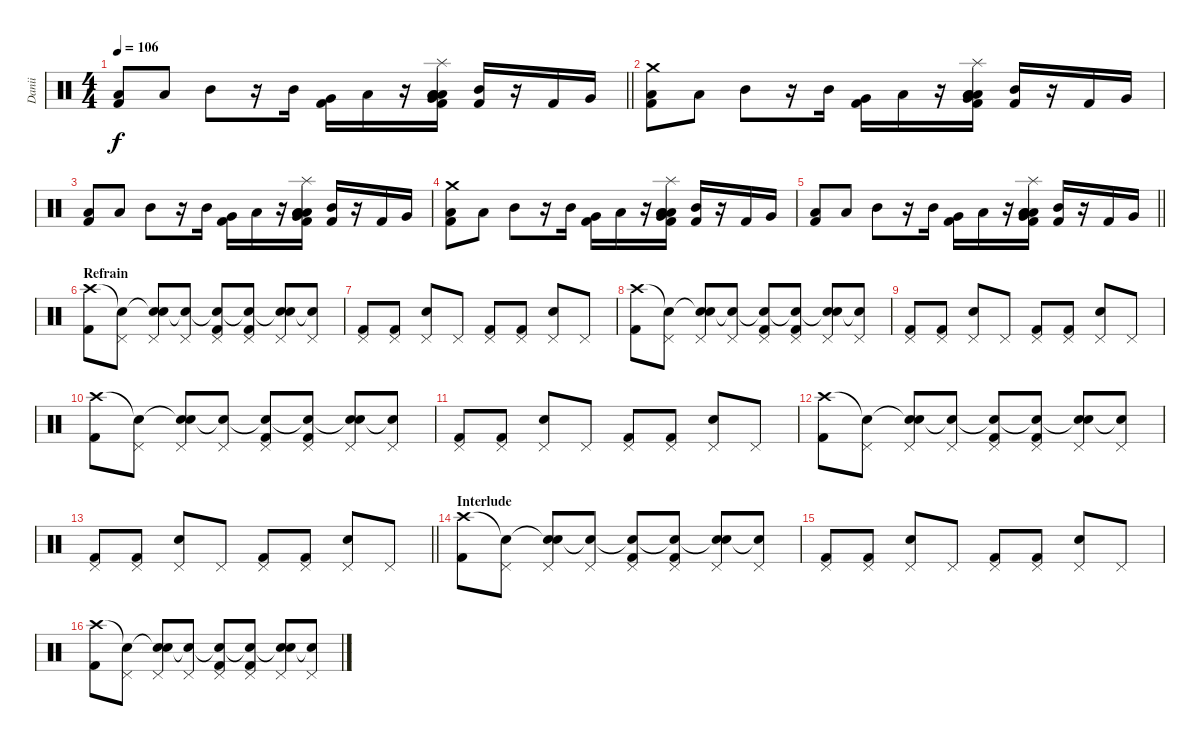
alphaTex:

\track ("Danii" "Danii") {instrument percussion}
\staff {score}
\articulation defaults
\ts (4 4)
\tempo 106
\clef neutral
\barLineRight lightlight
\ks c
("Low Floor Tom (hit)" "Kick (hit) 2").8{dy f} "Low Floor Tom (hit)".8 "Mid Tom (hit)".8 r.16 "Mid Tom (hit)".16 ("Very Low Tom (hit)" "Kick (hit) 2").16 "Low Tom (hit)".16 r.16 ("Low Floor Tom (hit)" "Low Floor Tom (hit)" "Very Low Tom (hit)" "Low Floor Tom (hit)" "Kick (hit) 2" "Splash (hit)").16 ("Mid Tom (hit)" "Kick (hit) 2").16 r.16 "Kick (hit) 2".16 "Very Low Tom (hit)".16 |
("Low Floor Tom (hit)" "Kick (hit) 2" "Crash medium (hit)").8 "Low Floor Tom (hit)".8 "Mid Tom (hit)".8 r.16 "Mid Tom (hit)".16 ("Very Low Tom (hit)" "Kick (hit) 2").16 "Low Tom (hit)".16 r.16 ("Low Floor Tom (hit)" "Low Floor Tom (hit)" "Very Low Tom (hit)" "Low Floor Tom (hit)" "Kick (hit) 2" "Splash (hit)").16 ("Mid Tom (hit)" "Kick (hit) 2").16 r.16 "Kick (hit) 2".16 "Very Low Tom (hit)".16 |
("Low Floor Tom (hit)" "Kick (hit) 2").8 "Low Floor Tom (hit)".8 "Mid Tom (hit)".8 r.16 "Mid Tom (hit)".16 ("Very Low Tom (hit)" "Kick (hit) 2").16 "Low Tom (hit)".16 r.16 ("Low Floor Tom (hit)" "Low Floor Tom (hit)" "Very Low Tom (hit)" "Low Floor Tom (hit)" "Kick (hit) 2" "Splash (hit)").16 ("Mid Tom (hit)" "Kick (hit) 2").16 r.16 "Kick (hit) 2".16 "Very Low Tom (hit)".16 |
("Low Floor Tom (hit)" "Kick (hit) 2" "Crash medium (hit)").8 "Low Floor Tom (hit)".8 "Mid Tom (hit)".8 r.16 "Mid Tom (hit)".16 ("Very Low Tom (hit)" "Kick (hit) 2").16 "Low Tom (hit)".16 r.16 ("Low Floor Tom (hit)" "Low Floor Tom (hit)" "Very Low Tom (hit)" "Low Floor Tom (hit)" "Kick (hit) 2" "Splash (hit)").16 ("Mid Tom (hit)" "Kick (hit) 2").16 r.16 "Kick (hit) 2".16 "Very Low Tom (hit)".16 |
\barLineRight lightlight
("Low Floor Tom (hit)" "Kick (hit) 2").8 "Low Floor Tom (hit)".8 "Mid Tom (hit)".8 r.16 "Mid Tom (hit)".16 ("Very Low Tom (hit)" "Kick (hit) 2").16 "Low Tom (hit)".16 r.16 ("Low Floor Tom (hit)" "Low Floor Tom (hit)" "Very Low Tom (hit)" "Low Floor Tom (hit)" "Kick (hit) 2" "Splash (hit)").16 ("Mid Tom (hit)" "Kick (hit) 2").16 r.16 "Kick (hit) 2".16 "Very Low Tom (hit)".16 |
\section ("" "Refrain")
("Crash high (hit)" "Kick (hit) 2").8{volume 16} ("Snare (hit)"{t} "Pedal Hi-Hat (hit)").8 ("Snare (hit)"{t} "Pedal Hi-Hat (hit)" "Snare (hit) 2").8 ("Snare (hit)"{t} "Pedal Hi-Hat (hit)").8 ("Snare (hit)"{t} "Pedal Hi-Hat (hit)" "Kick (hit) 2").8 ("Snare (hit)"{t} "Pedal Hi-Hat (hit)" "Kick (hit) 2").8 ("Snare (hit)"{t} "Pedal Hi-Hat (hit)" "Snare (hit) 2").8 ("Snare (hit)"{t} "Pedal Hi-Hat (hit)").8 |
("Pedal Hi-Hat (hit)" "Kick (hit) 2").8 ("Pedal Hi-Hat (hit)" "Kick (hit) 2").8 ("Pedal Hi-Hat (hit)" "Snare (hit) 2").8 "Pedal Hi-Hat (hit)".8 ("Pedal Hi-Hat (hit)" "Kick (hit) 2").8 ("Pedal Hi-Hat (hit)" "Kick (hit) 2").8 ("Pedal Hi-Hat (hit)" "Snare (hit) 2").8 "Pedal Hi-Hat (hit)".8 |
("Crash high (hit)" "Kick (hit) 2").8{volume 16} ("Snare (hit)"{t} "Pedal Hi-Hat (hit)").8 ("Snare (hit)"{t} "Pedal Hi-Hat (hit)" "Snare (hit) 2").8 ("Snare (hit)"{t} "Pedal Hi-Hat (hit)").8 ("Snare (hit)"{t} "Pedal Hi-Hat (hit)" "Kick (hit) 2").8 ("Snare (hit)"{t} "Pedal Hi-Hat (hit)" "Kick (hit) 2").8 ("Snare (hit)"{t} "Pedal Hi-Hat (hit)" "Snare (hit) 2").8 ("Snare (hit)"{t} "Pedal Hi-Hat (hit)").8 |
("Pedal Hi-Hat (hit)" "Kick (hit) 2").8 ("Pedal Hi-Hat (hit)" "Kick (hit) 2").8 ("Pedal Hi-Hat (hit)" "Snare (hit) 2").8 "Pedal Hi-Hat (hit)".8 ("Pedal Hi-Hat (hit)" "Kick (hit) 2").8 ("Pedal Hi-Hat (hit)" "Kick (hit) 2").8 ("Pedal Hi-Hat (hit)" "Snare (hit) 2").8 "Pedal Hi-Hat (hit)".8 |
("Crash high (hit)" "Kick (hit) 2").8{volume 16} ("Snare (hit)"{t} "Pedal Hi-Hat (hit)").8 ("Snare (hit)"{t} "Pedal Hi-Hat (hit)" "Snare (hit) 2").8 ("Snare (hit)"{t} "Pedal Hi-Hat (hit)").8 ("Snare (hit)"{t} "Pedal Hi-Hat (hit)" "Kick (hit) 2").8 ("Snare (hit)"{t} "Pedal Hi-Hat (hit)" "Kick (hit) 2").8 ("Snare (hit)"{t} "Pedal Hi-Hat (hit)" "Snare (hit) 2").8 ("Snare (hit)"{t} "Pedal Hi-Hat (hit)").8 |
("Pedal Hi-Hat (hit)" "Kick (hit) 2").8 ("Pedal Hi-Hat (hit)" "Kick (hit) 2").8 ("Pedal Hi-Hat (hit)" "Snare (hit) 2").8 "Pedal Hi-Hat (hit)".8 ("Pedal Hi-Hat (hit)" "Kick (hit) 2").8 ("Pedal Hi-Hat (hit)" "Kick (hit) 2").8 ("Pedal Hi-Hat (hit)" "Snare (hit) 2").8 "Pedal Hi-Hat (hit)".8 |
("Crash high (hit)" "Kick (hit) 2").8{volume 16} ("Snare (hit)"{t} "Pedal Hi-Hat (hit)").8 ("Snare (hit)"{t} "Pedal Hi-Hat (hit)" "Snare (hit) 2").8 ("Snare (hit)"{t} "Pedal Hi-Hat (hit)").8 ("Snare (hit)"{t} "Pedal Hi-Hat (hit)" "Kick (hit) 2").8 ("Snare (hit)"{t} "Pedal Hi-Hat (hit)" "Kick (hit) 2").8 ("Snare (hit)"{t} "Pedal Hi-Hat (hit)" "Snare (hit) 2").8 ("Snare (hit)"{t} "Pedal Hi-Hat (hit)").8 |
\barLineRight lightlight
("Pedal Hi-Hat (hit)" "Kick (hit) 2").8 ("Pedal Hi-Hat (hit)" "Kick (hit) 2").8 ("Pedal Hi-Hat (hit)" "Snare (hit) 2").8 "Pedal Hi-Hat (hit)".8 ("Pedal Hi-Hat (hit)" "Kick (hit) 2").8 ("Pedal Hi-Hat (hit)" "Kick (hit) 2").8 ("Pedal Hi-Hat (hit)" "Snare (hit) 2").8 "Pedal Hi-Hat (hit)".8 |
\section ("" "Interlude")
("Crash high (hit)" "Kick (hit) 2").8{volume 16} ("Snare (hit)"{t} "Pedal Hi-Hat (hit)").8 ("Snare (hit)"{t} "Pedal Hi-Hat (hit)" "Snare (hit) 2").8 ("Snare (hit)"{t} "Pedal Hi-Hat (hit)").8 ("Snare (hit)"{t} "Pedal Hi-Hat (hit)" "Kick (hit) 2").8 ("Snare (hit)"{t} "Pedal Hi-Hat (hit)" "Kick (hit) 2").8 ("Snare (hit)"{t} "Pedal Hi-Hat (hit)" "Snare (hit) 2").8 ("Snare (hit)"{t} "Pedal Hi-Hat (hit)").8 |
("Pedal Hi-Hat (hit)" "Kick (hit) 2").8 ("Pedal Hi-Hat (hit)" "Kick (hit) 2").8 ("Pedal Hi-Hat (hit)" "Snare (hit) 2").8 "Pedal Hi-Hat (hit)".8 ("Pedal Hi-Hat (hit)" "Kick (hit) 2").8 ("Pedal Hi-Hat (hit)" "Kick (hit) 2").8 ("Pedal Hi-Hat (hit)" "Snare (hit) 2").8 "Pedal Hi-Hat (hit)".8 |
("Crash high (hit)" "Kick (hit) 2").8{volume 16} ("Snare (hit)"{t} "Pedal Hi-Hat (hit)").8 ("Snare (hit)"{t} "Pedal Hi-Hat (hit)" "Snare (hit) 2").8 ("Snare (hit)"{t} "Pedal Hi-Hat (hit)").8 ("Snare (hit)"{t} "Pedal Hi-Hat (hit)" "Kick (hit) 2").8 ("Snare (hit)"{t} "Pedal Hi-Hat (hit)" "Kick (hit) 2").8 ("Snare (hit)"{t} "Pedal Hi-Hat (hit)" "Snare (hit) 2").8 ("Snare (hit)"{t} "Pedal Hi-Hat (hit)").8
